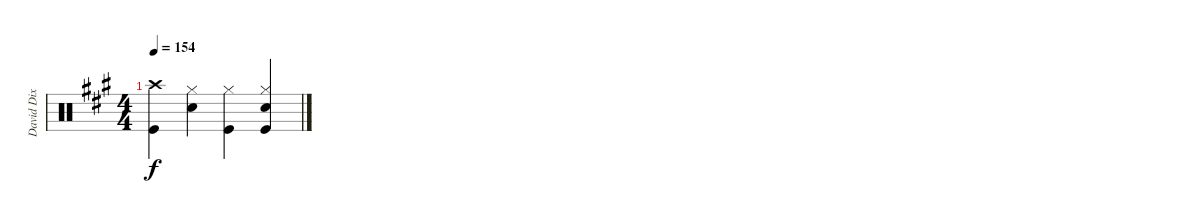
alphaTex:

\track ("David Dix Drums" "David Dix ") {instrument percussion}
\staff {score}
\articulation defaults
\ts (4 4)
\tempo 154
\clef neutral
\ks f#minor
("Crash high (hit)" "Kick (hit)").4{dy f} ("Hi-Hat (closed)" "Snare (hit) 2").4 ("Hi-Hat (closed)" "Kick (hit)").4 ("Hi-Hat (closed)" "Snare (hit) 2" "Kick (hit)").4
